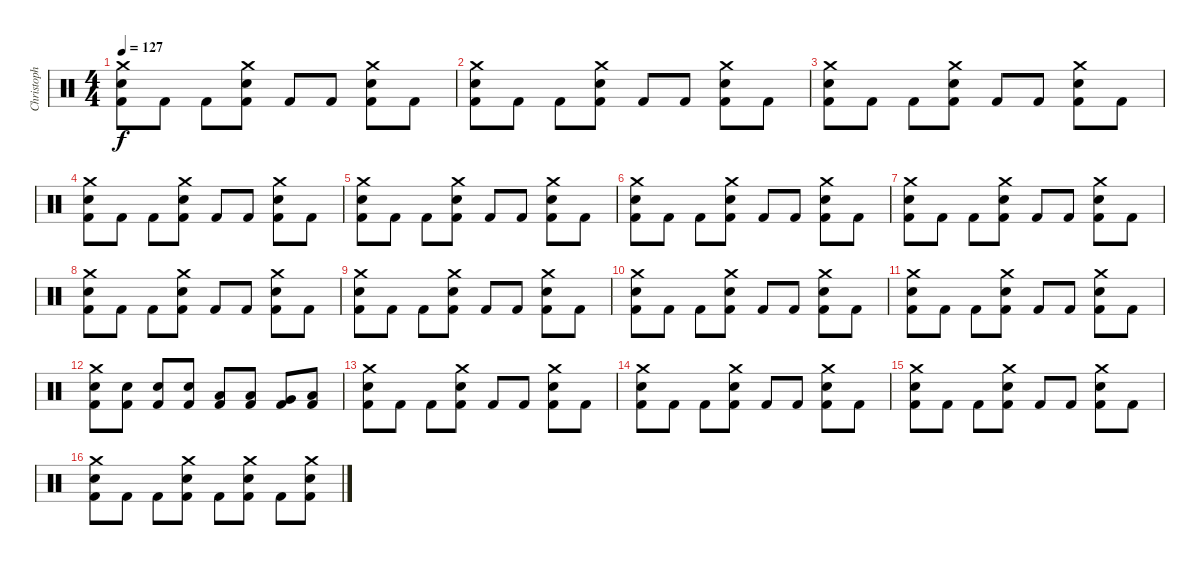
\track ("Christoph Schneider - Drums" "Christoph ") {instrument percussion}
\staff {score}
\articulation defaults
\ts (4 4)
\tempo 127
\clef neutral
\ks c
("Crash medium (hit)" "Electric Snare (hit)" "Kick (hit) 2").8{dy f} "Kick (hit) 2".8 "Kick (hit) 2".8 ("Crash medium (hit)" "Electric Snare (hit)" "Kick (hit) 2").8 "Kick (hit) 2".8 "Kick (hit) 2".8 ("Crash medium (hit)" "Electric Snare (hit)" "Kick (hit) 2").8 "Kick (hit) 2".8 |
("Crash medium (hit)" "Electric Snare (hit)" "Kick (hit) 2").8 "Kick (hit) 2".8 "Kick (hit) 2".8 ("Crash medium (hit)" "Electric Snare (hit)" "Kick (hit) 2").8 "Kick (hit) 2".8 "Kick (hit) 2".8 ("Crash medium (hit)" "Electric Snare (hit)" "Kick (hit) 2").8 "Kick (hit) 2".8 |
("Crash medium (hit)" "Electric Snare (hit)" "Kick (hit) 2").8 "Kick (hit) 2".8 "Kick (hit) 2".8 ("Crash medium (hit)" "Electric Snare (hit)" "Kick (hit) 2").8 "Kick (hit) 2".8 "Kick (hit) 2".8 ("Crash medium (hit)" "Electric Snare (hit)" "Kick (hit) 2").8 "Kick (hit) 2".8 |
("Crash medium (hit)" "Electric Snare (hit)" "Kick (hit) 2").8 "Kick (hit) 2".8 "Kick (hit) 2".8 ("Crash medium (hit)" "Electric Snare (hit)" "Kick (hit) 2").8 "Kick (hit) 2".8 "Kick (hit) 2".8 ("Crash medium (hit)" "Electric Snare (hit)" "Kick (hit) 2").8 "Kick (hit) 2".8 |
("Crash medium (hit)" "Electric Snare (hit)" "Kick (hit) 2").8 "Kick (hit) 2".8 "Kick (hit) 2".8 ("Crash medium (hit)" "Electric Snare (hit)" "Kick (hit) 2").8 "Kick (hit) 2".8 "Kick (hit) 2".8 ("Crash medium (hit)" "Electric Snare (hit)" "Kick (hit) 2").8 "Kick (hit) 2".8 |
("Crash medium (hit)" "Electric Snare (hit)" "Kick (hit) 2").8 "Kick (hit) 2".8 "Kick (hit) 2".8 ("Crash medium (hit)" "Electric Snare (hit)" "Kick (hit) 2").8 "Kick (hit) 2".8 "Kick (hit) 2".8 ("Crash medium (hit)" "Electric Snare (hit)" "Kick (hit) 2").8 "Kick (hit) 2".8 |
("Crash medium (hit)" "Electric Snare (hit)" "Kick (hit) 2").8 "Kick (hit) 2".8 "Kick (hit) 2".8 ("Crash medium (hit)" "Electric Snare (hit)" "Kick (hit) 2").8 "Kick (hit) 2".8 "Kick (hit) 2".8 ("Crash medium (hit)" "Electric Snare (hit)" "Kick (hit) 2").8 "Kick (hit) 2".8 |
("Crash medium (hit)" "Electric Snare (hit)" "Kick (hit) 2").8 "Kick (hit) 2".8 "Kick (hit) 2".8 ("Crash medium (hit)" "Electric Snare (hit)" "Kick (hit) 2").8 "Kick (hit) 2".8 "Kick (hit) 2".8 ("Crash medium (hit)" "Electric Snare (hit)" "Kick (hit) 2").8 "Kick (hit) 2".8 |
("Crash medium (hit)" "Electric Snare (hit)" "Kick (hit) 2").8 "Kick (hit) 2".8 "Kick (hit) 2".8 ("Crash medium (hit)" "Electric Snare (hit)" "Kick (hit) 2").8 "Kick (hit) 2".8 "Kick (hit) 2".8 ("Crash medium (hit)" "Electric Snare (hit)" "Kick (hit) 2").8 "Kick (hit) 2".8 |
("Crash medium (hit)" "Electric Snare (hit)" "Kick (hit) 2").8 "Kick (hit) 2".8 "Kick (hit) 2".8 ("Crash medium (hit)" "Electric Snare (hit)" "Kick (hit) 2").8 "Kick (hit) 2".8 "Kick (hit) 2".8 ("Crash medium (hit)" "Electric Snare (hit)" "Kick (hit) 2").8 "Kick (hit) 2".8 |
("Crash medium (hit)" "Electric Snare (hit)" "Kick (hit) 2").8 "Kick (hit) 2".8 "Kick (hit) 2".8 ("Crash medium (hit)" "Electric Snare (hit)" "Kick (hit) 2").8 "Kick (hit) 2".8 "Kick (hit) 2".8 ("Crash medium (hit)" "Electric Snare (hit)" "Kick (hit) 2").8 "Kick (hit) 2".8 |
("Crash medium (hit)" "Electric Snare (hit)" "Kick (hit) 2").8 ("Electric Snare (hit)" "Kick (hit) 2").8 ("Electric Snare (hit)" "Kick (hit) 2").8 ("Electric Snare (hit)" "Kick (hit) 2").8 ("Low Tom (hit)" "Kick (hit) 2").8 ("Low Tom (hit)" "Kick (hit) 2").8 ("Very Low Tom (hit)" "Kick (hit) 2").8 ("Low Floor Tom (hit)" "Kick (hit) 2").8 |
("Crash medium (hit)" "Electric Snare (hit)" "Kick (hit) 2").8 "Kick (hit) 2".8 "Kick (hit) 2".8 ("Crash medium (hit)" "Electric Snare (hit)" "Kick (hit) 2").8 "Kick (hit) 2".8 "Kick (hit) 2".8 ("Crash medium (hit)" "Electric Snare (hit)" "Kick (hit) 2").8 "Kick (hit) 2".8 |
("Crash medium (hit)" "Electric Snare (hit)" "Kick (hit) 2").8 "Kick (hit) 2".8 "Kick (hit) 2".8 ("Crash medium (hit)" "Electric Snare (hit)" "Kick (hit) 2").8 "Kick (hit) 2".8 "Kick (hit) 2".8 ("Crash medium (hit)" "Electric Snare (hit)" "Kick (hit) 2").8 "Kick (hit) 2".8 |
("Crash medium (hit)" "Electric Snare (hit)" "Kick (hit) 2").8 "Kick (hit) 2".8 "Kick (hit) 2".8 ("Crash medium (hit)" "Electric Snare (hit)" "Kick (hit) 2").8 "Kick (hit) 2".8 "Kick (hit) 2".8 ("Crash medium (hit)" "Electric Snare (hit)" "Kick (hit) 2").8 "Kick (hit) 2".8 |
("Crash medium (hit)" "Electric Snare (hit)" "Kick (hit) 2").8 "Kick (hit) 2".8 "Kick (hit) 2".8 ("Crash medium (hit)" "Electric Snare (hit)" "Kick (hit) 2").8 "Kick (hit) 2".8 ("Crash medium (hit)" "Electric Snare (hit)" "Kick (hit) 2").8 "Kick (hit) 2".8 ("Crash medium (hit)" "Electric Snare (hit)" "Kick (hit) 2").8
